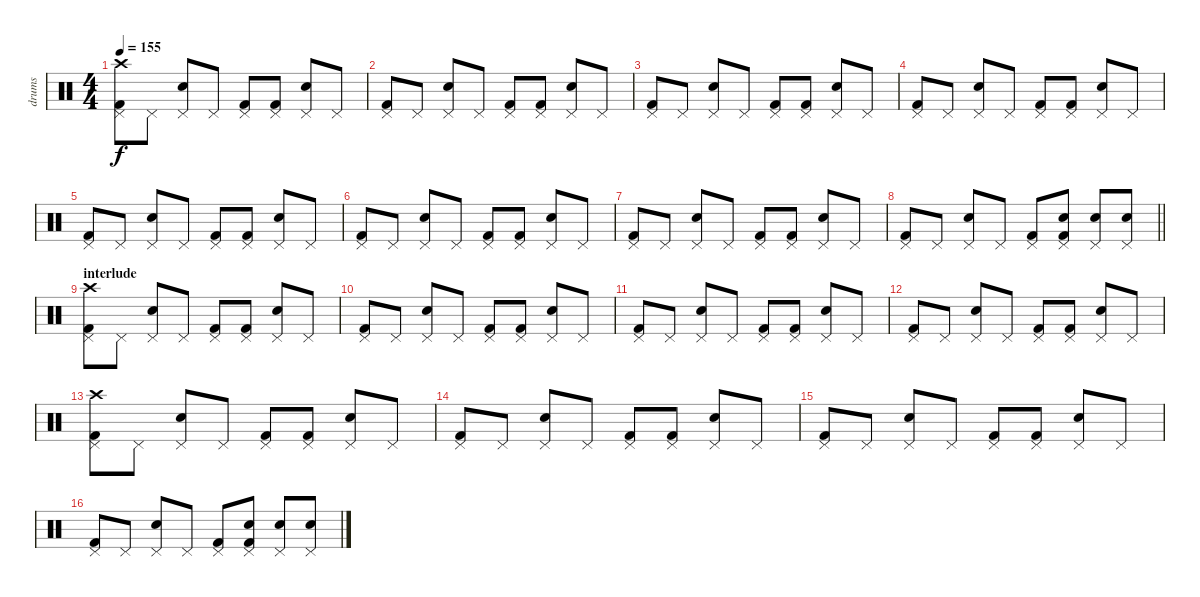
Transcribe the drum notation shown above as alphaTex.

\track ("drums" "drums") {instrument percussion}
\staff {score}
\articulation defaults
\ts (4 4)
\tempo 155
\clef neutral
\ks c
("Kick (hit) 2" "Pedal Hi-Hat (hit)" "Crash high (hit)").8{dy f} "Pedal Hi-Hat (hit)".8 ("Electric Snare (hit)" "Pedal Hi-Hat (hit)").8 "Pedal Hi-Hat (hit)".8 ("Kick (hit) 2" "Pedal Hi-Hat (hit)").8 ("Kick (hit) 2" "Pedal Hi-Hat (hit)").8 ("Electric Snare (hit)" "Pedal Hi-Hat (hit)").8 "Pedal Hi-Hat (hit)".8 |
("Kick (hit) 2" "Pedal Hi-Hat (hit)").8 "Pedal Hi-Hat (hit)".8 ("Electric Snare (hit)" "Pedal Hi-Hat (hit)").8 "Pedal Hi-Hat (hit)".8 ("Kick (hit) 2" "Pedal Hi-Hat (hit)").8 ("Kick (hit) 2" "Pedal Hi-Hat (hit)").8 ("Electric Snare (hit)" "Pedal Hi-Hat (hit)").8 "Pedal Hi-Hat (hit)".8 |
("Kick (hit) 2" "Pedal Hi-Hat (hit)").8 "Pedal Hi-Hat (hit)".8 ("Electric Snare (hit)" "Pedal Hi-Hat (hit)").8 "Pedal Hi-Hat (hit)".8 ("Kick (hit) 2" "Pedal Hi-Hat (hit)").8 ("Kick (hit) 2" "Pedal Hi-Hat (hit)").8 ("Electric Snare (hit)" "Pedal Hi-Hat (hit)").8 "Pedal Hi-Hat (hit)".8 |
("Kick (hit) 2" "Pedal Hi-Hat (hit)").8 "Pedal Hi-Hat (hit)".8 ("Electric Snare (hit)" "Pedal Hi-Hat (hit)").8 "Pedal Hi-Hat (hit)".8 ("Kick (hit) 2" "Pedal Hi-Hat (hit)").8 ("Kick (hit) 2" "Pedal Hi-Hat (hit)").8 ("Electric Snare (hit)" "Pedal Hi-Hat (hit)").8 "Pedal Hi-Hat (hit)".8 |
("Kick (hit) 2" "Pedal Hi-Hat (hit)").8 "Pedal Hi-Hat (hit)".8 ("Electric Snare (hit)" "Pedal Hi-Hat (hit)").8 "Pedal Hi-Hat (hit)".8 ("Kick (hit) 2" "Pedal Hi-Hat (hit)").8 ("Kick (hit) 2" "Pedal Hi-Hat (hit)").8 ("Electric Snare (hit)" "Pedal Hi-Hat (hit)").8 "Pedal Hi-Hat (hit)".8 |
("Kick (hit) 2" "Pedal Hi-Hat (hit)").8 "Pedal Hi-Hat (hit)".8 ("Electric Snare (hit)" "Pedal Hi-Hat (hit)").8 "Pedal Hi-Hat (hit)".8 ("Kick (hit) 2" "Pedal Hi-Hat (hit)").8 ("Kick (hit) 2" "Pedal Hi-Hat (hit)").8 ("Electric Snare (hit)" "Pedal Hi-Hat (hit)").8 "Pedal Hi-Hat (hit)".8 |
("Kick (hit) 2" "Pedal Hi-Hat (hit)").8 "Pedal Hi-Hat (hit)".8 ("Electric Snare (hit)" "Pedal Hi-Hat (hit)").8 "Pedal Hi-Hat (hit)".8 ("Kick (hit) 2" "Pedal Hi-Hat (hit)").8 ("Kick (hit) 2" "Pedal Hi-Hat (hit)").8 ("Electric Snare (hit)" "Pedal Hi-Hat (hit)").8 "Pedal Hi-Hat (hit)".8 |
\barLineRight lightlight
("Kick (hit) 2" "Pedal Hi-Hat (hit)").8 "Pedal Hi-Hat (hit)".8 ("Electric Snare (hit)" "Pedal Hi-Hat (hit)").8 "Pedal Hi-Hat (hit)".8 ("Kick (hit) 2" "Pedal Hi-Hat (hit)").8 ("Kick (hit) 2" "Electric Snare (hit)" "Pedal Hi-Hat (hit)").8 ("Electric Snare (hit)" "Pedal Hi-Hat (hit)").8 ("Electric Snare (hit)" "Pedal Hi-Hat (hit)").8 |
\section ("" "interlude")
("Kick (hit) 2" "Pedal Hi-Hat (hit)" "Crash high (hit)").8 "Pedal Hi-Hat (hit)".8 ("Electric Snare (hit)" "Pedal Hi-Hat (hit)").8 "Pedal Hi-Hat (hit)".8 ("Kick (hit) 2" "Pedal Hi-Hat (hit)").8 ("Kick (hit) 2" "Pedal Hi-Hat (hit)").8 ("Electric Snare (hit)" "Pedal Hi-Hat (hit)").8 "Pedal Hi-Hat (hit)".8 |
("Kick (hit) 2" "Pedal Hi-Hat (hit)").8 "Pedal Hi-Hat (hit)".8 ("Electric Snare (hit)" "Pedal Hi-Hat (hit)").8 "Pedal Hi-Hat (hit)".8 ("Kick (hit) 2" "Pedal Hi-Hat (hit)").8 ("Kick (hit) 2" "Pedal Hi-Hat (hit)").8 ("Electric Snare (hit)" "Pedal Hi-Hat (hit)").8 "Pedal Hi-Hat (hit)".8 |
("Kick (hit) 2" "Pedal Hi-Hat (hit)").8 "Pedal Hi-Hat (hit)".8 ("Electric Snare (hit)" "Pedal Hi-Hat (hit)").8 "Pedal Hi-Hat (hit)".8 ("Kick (hit) 2" "Pedal Hi-Hat (hit)").8 ("Kick (hit) 2" "Pedal Hi-Hat (hit)").8 ("Electric Snare (hit)" "Pedal Hi-Hat (hit)").8 "Pedal Hi-Hat (hit)".8 |
("Kick (hit) 2" "Pedal Hi-Hat (hit)").8 "Pedal Hi-Hat (hit)".8 ("Electric Snare (hit)" "Pedal Hi-Hat (hit)").8 "Pedal Hi-Hat (hit)".8 ("Kick (hit) 2" "Pedal Hi-Hat (hit)").8 ("Kick (hit) 2" "Pedal Hi-Hat (hit)").8 ("Electric Snare (hit)" "Pedal Hi-Hat (hit)").8 "Pedal Hi-Hat (hit)".8 |
("Kick (hit) 2" "Pedal Hi-Hat (hit)" "Crash high (hit)").8 "Pedal Hi-Hat (hit)".8 ("Electric Snare (hit)" "Pedal Hi-Hat (hit)").8 "Pedal Hi-Hat (hit)".8 ("Kick (hit) 2" "Pedal Hi-Hat (hit)").8 ("Kick (hit) 2" "Pedal Hi-Hat (hit)").8 ("Electric Snare (hit)" "Pedal Hi-Hat (hit)").8 "Pedal Hi-Hat (hit)".8 |
("Kick (hit) 2" "Pedal Hi-Hat (hit)").8 "Pedal Hi-Hat (hit)".8 ("Electric Snare (hit)" "Pedal Hi-Hat (hit)").8 "Pedal Hi-Hat (hit)".8 ("Kick (hit) 2" "Pedal Hi-Hat (hit)").8 ("Kick (hit) 2" "Pedal Hi-Hat (hit)").8 ("Electric Snare (hit)" "Pedal Hi-Hat (hit)").8 "Pedal Hi-Hat (hit)".8 |
("Kick (hit) 2" "Pedal Hi-Hat (hit)").8 "Pedal Hi-Hat (hit)".8 ("Electric Snare (hit)" "Pedal Hi-Hat (hit)").8 "Pedal Hi-Hat (hit)".8 ("Kick (hit) 2" "Pedal Hi-Hat (hit)").8 ("Kick (hit) 2" "Pedal Hi-Hat (hit)").8 ("Electric Snare (hit)" "Pedal Hi-Hat (hit)").8 "Pedal Hi-Hat (hit)".8 |
("Kick (hit) 2" "Pedal Hi-Hat (hit)").8 "Pedal Hi-Hat (hit)".8 ("Electric Snare (hit)" "Pedal Hi-Hat (hit)").8 "Pedal Hi-Hat (hit)".8 ("Kick (hit) 2" "Pedal Hi-Hat (hit)").8 ("Kick (hit) 2" "Electric Snare (hit)" "Pedal Hi-Hat (hit)").8 ("Electric Snare (hit)" "Pedal Hi-Hat (hit)").8 ("Electric Snare (hit)" "Pedal Hi-Hat (hit)").8
